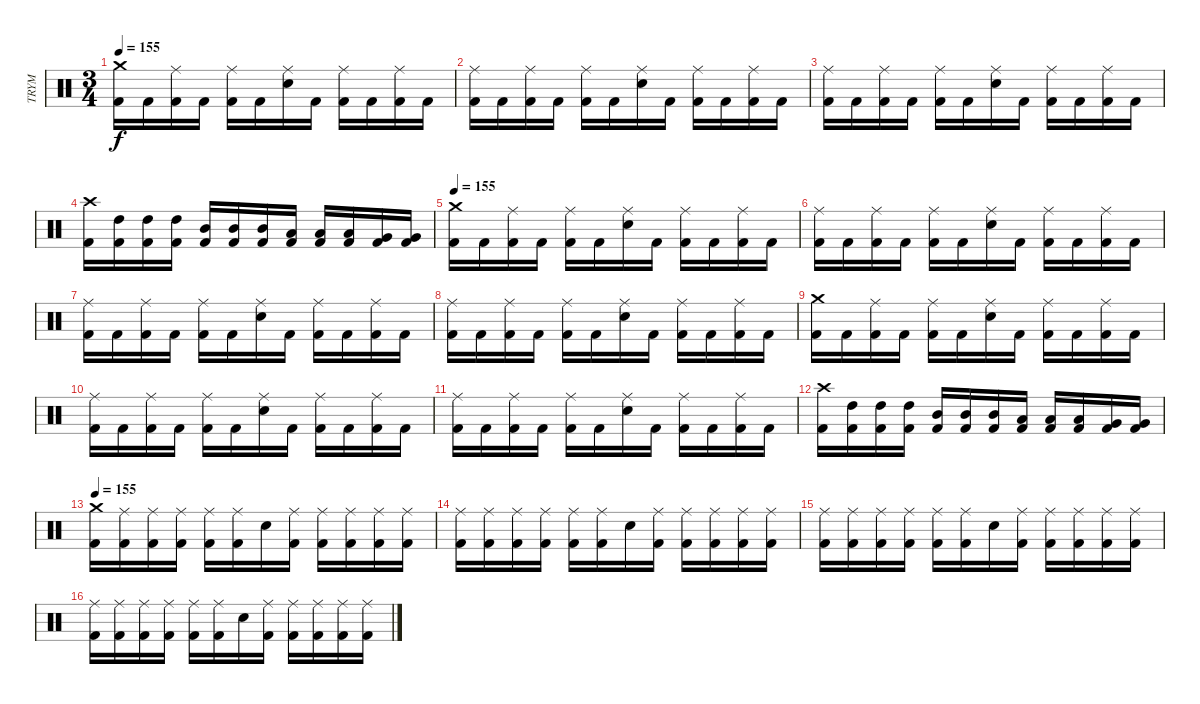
\track ("TRYM" "TRYM") {instrument percussion}
\staff {score}
\articulation defaults
\ts (3 4)
\tempo 155
\clef neutral
\ks c
("Kick (hit) 2" "Crash medium (hit)").16{dy f} "Kick (hit) 2".16 ("Kick (hit) 2" "Ride (middle)").16 "Kick (hit) 2".16 ("Kick (hit) 2" "Ride (middle)").16 "Kick (hit) 2".16 ("Ride (middle)" "Electric Snare (hit)").16 "Kick (hit) 2".16 ("Kick (hit) 2" "Ride (middle)").16 "Kick (hit) 2".16 ("Kick (hit) 2" "Ride (middle)").16 "Kick (hit) 2".16 |
("Kick (hit) 2" "Ride (middle)").16 "Kick (hit) 2".16 ("Kick (hit) 2" "Ride (middle)").16 "Kick (hit) 2".16 ("Kick (hit) 2" "Ride (middle)").16 "Kick (hit) 2".16 ("Ride (middle)" "Electric Snare (hit)").16 "Kick (hit) 2".16 ("Kick (hit) 2" "Ride (middle)").16 "Kick (hit) 2".16 ("Kick (hit) 2" "Ride (middle)").16 "Kick (hit) 2".16 |
("Kick (hit) 2" "Ride (middle)").16 "Kick (hit) 2".16 ("Kick (hit) 2" "Ride (middle)").16 "Kick (hit) 2".16 ("Kick (hit) 2" "Ride (middle)").16 "Kick (hit) 2".16 ("Ride (middle)" "Electric Snare (hit)").16 "Kick (hit) 2".16 ("Kick (hit) 2" "Ride (middle)").16 "Kick (hit) 2".16 ("Kick (hit) 2" "Ride (middle)").16 "Kick (hit) 2".16 |
("Kick (hit) 2" "Crash high (hit)").16 ("Kick (hit) 2" "High Tom (hit)").16 ("Kick (hit) 2" "High Tom (hit)").16 ("Kick (hit) 2" "High Tom (hit)").16 ("Kick (hit) 2" "Mid Tom (hit)").16 ("Kick (hit) 2" "Mid Tom (hit)").16 ("Kick (hit) 2" "Mid Tom (hit)").16 ("Kick (hit) 2" "Low Tom (hit)").16 ("Kick (hit) 2" "Low Tom (hit)").16 ("Kick (hit) 2" "Low Tom (hit)").16 ("Kick (hit) 2" "Very Low Tom (hit)").16 ("Kick (hit) 2" "Very Low Tom (hit)").16 |
\tempo 155
("Kick (hit) 2" "Crash medium (hit)").16 "Kick (hit) 2".16 ("Kick (hit) 2" "Ride (middle)").16 "Kick (hit) 2".16 ("Kick (hit) 2" "Ride (middle)").16 "Kick (hit) 2".16 ("Ride (middle)" "Electric Snare (hit)").16 "Kick (hit) 2".16 ("Kick (hit) 2" "Ride (middle)").16 "Kick (hit) 2".16 ("Kick (hit) 2" "Ride (middle)").16 "Kick (hit) 2".16 |
("Kick (hit) 2" "Ride (middle)").16 "Kick (hit) 2".16 ("Kick (hit) 2" "Ride (middle)").16 "Kick (hit) 2".16 ("Kick (hit) 2" "Ride (middle)").16 "Kick (hit) 2".16 ("Ride (middle)" "Electric Snare (hit)").16 "Kick (hit) 2".16 ("Kick (hit) 2" "Ride (middle)").16 "Kick (hit) 2".16 ("Kick (hit) 2" "Ride (middle)").16 "Kick (hit) 2".16 |
("Kick (hit) 2" "Ride (middle)").16 "Kick (hit) 2".16 ("Kick (hit) 2" "Ride (middle)").16 "Kick (hit) 2".16 ("Kick (hit) 2" "Ride (middle)").16 "Kick (hit) 2".16 ("Ride (middle)" "Electric Snare (hit)").16 "Kick (hit) 2".16 ("Kick (hit) 2" "Ride (middle)").16 "Kick (hit) 2".16 ("Kick (hit) 2" "Ride (middle)").16 "Kick (hit) 2".16 |
("Kick (hit) 2" "Ride (middle)").16 "Kick (hit) 2".16 ("Kick (hit) 2" "Ride (middle)").16 "Kick (hit) 2".16 ("Kick (hit) 2" "Ride (middle)").16 "Kick (hit) 2".16 ("Ride (middle)" "Electric Snare (hit)").16 "Kick (hit) 2".16 ("Kick (hit) 2" "Ride (middle)").16 "Kick (hit) 2".16 ("Kick (hit) 2" "Ride (middle)").16 "Kick (hit) 2".16 |
("Kick (hit) 2" "Crash medium (hit)").16 "Kick (hit) 2".16 ("Kick (hit) 2" "Ride (middle)").16 "Kick (hit) 2".16 ("Kick (hit) 2" "Ride (middle)").16 "Kick (hit) 2".16 ("Ride (middle)" "Electric Snare (hit)").16 "Kick (hit) 2".16 ("Kick (hit) 2" "Ride (middle)").16 "Kick (hit) 2".16 ("Kick (hit) 2" "Ride (middle)").16 "Kick (hit) 2".16 |
("Kick (hit) 2" "Ride (middle)").16 "Kick (hit) 2".16 ("Kick (hit) 2" "Ride (middle)").16 "Kick (hit) 2".16 ("Kick (hit) 2" "Ride (middle)").16 "Kick (hit) 2".16 ("Ride (middle)" "Electric Snare (hit)").16 "Kick (hit) 2".16 ("Kick (hit) 2" "Ride (middle)").16 "Kick (hit) 2".16 ("Kick (hit) 2" "Ride (middle)").16 "Kick (hit) 2".16 |
("Kick (hit) 2" "Ride (middle)").16 "Kick (hit) 2".16 ("Kick (hit) 2" "Ride (middle)").16 "Kick (hit) 2".16 ("Kick (hit) 2" "Ride (middle)").16 "Kick (hit) 2".16 ("Ride (middle)" "Electric Snare (hit)").16 "Kick (hit) 2".16 ("Kick (hit) 2" "Ride (middle)").16 "Kick (hit) 2".16 ("Kick (hit) 2" "Ride (middle)").16 "Kick (hit) 2".16 |
("Kick (hit) 2" "Crash high (hit)").16 ("Kick (hit) 2" "High Tom (hit)").16 ("Kick (hit) 2" "High Tom (hit)").16 ("Kick (hit) 2" "High Tom (hit)").16 ("Kick (hit) 2" "Mid Tom (hit)").16 ("Kick (hit) 2" "Mid Tom (hit)").16 ("Kick (hit) 2" "Mid Tom (hit)").16 ("Kick (hit) 2" "Low Tom (hit)").16 ("Kick (hit) 2" "Low Tom (hit)").16 ("Kick (hit) 2" "Low Tom (hit)").16 ("Kick (hit) 2" "Very Low Tom (hit)").16 ("Kick (hit) 2" "Very Low Tom (hit)").16 |
\tempo 155
("Kick (hit) 2" "Crash medium (hit)").16 ("Kick (hit) 2" "Ride (middle)").16 ("Kick (hit) 2" "Ride (middle)").16 ("Kick (hit) 2" "Ride (middle)").16 ("Kick (hit) 2" "Ride (middle)").16 ("Kick (hit) 2" "Ride (middle)").16 "Electric Snare (hit)".16 ("Kick (hit) 2" "Ride (middle)").16 ("Kick (hit) 2" "Ride (middle)").16 ("Kick (hit) 2" "Ride (middle)").16 ("Kick (hit) 2" "Ride (middle)").16 ("Kick (hit) 2" "Ride (middle)").16 |
("Kick (hit) 2" "Ride (middle)").16 ("Kick (hit) 2" "Ride (middle)").16 ("Kick (hit) 2" "Ride (middle)").16 ("Kick (hit) 2" "Ride (middle)").16 ("Kick (hit) 2" "Ride (middle)").16 ("Kick (hit) 2" "Ride (middle)").16 "Electric Snare (hit)".16 ("Kick (hit) 2" "Ride (middle)").16 ("Kick (hit) 2" "Ride (middle)").16 ("Kick (hit) 2" "Ride (middle)").16 ("Kick (hit) 2" "Ride (middle)").16 ("Kick (hit) 2" "Ride (middle)").16 |
("Kick (hit) 2" "Ride (middle)").16 ("Kick (hit) 2" "Ride (middle)").16 ("Kick (hit) 2" "Ride (middle)").16 ("Kick (hit) 2" "Ride (middle)").16 ("Kick (hit) 2" "Ride (middle)").16 ("Kick (hit) 2" "Ride (middle)").16 "Electric Snare (hit)".16 ("Kick (hit) 2" "Ride (middle)").16 ("Kick (hit) 2" "Ride (middle)").16 ("Kick (hit) 2" "Ride (middle)").16 ("Kick (hit) 2" "Ride (middle)").16 ("Kick (hit) 2" "Ride (middle)").16 |
("Kick (hit) 2" "Ride (middle)").16 ("Kick (hit) 2" "Ride (middle)").16 ("Kick (hit) 2" "Ride (middle)").16 ("Kick (hit) 2" "Ride (middle)").16 ("Kick (hit) 2" "Ride (middle)").16 ("Kick (hit) 2" "Ride (middle)").16 "Electric Snare (hit)".16 ("Kick (hit) 2" "Ride (middle)").16 ("Kick (hit) 2" "Ride (middle)").16 ("Kick (hit) 2" "Ride (middle)").16 ("Kick (hit) 2" "Ride (middle)").16 ("Kick (hit) 2" "Ride (middle)").16
